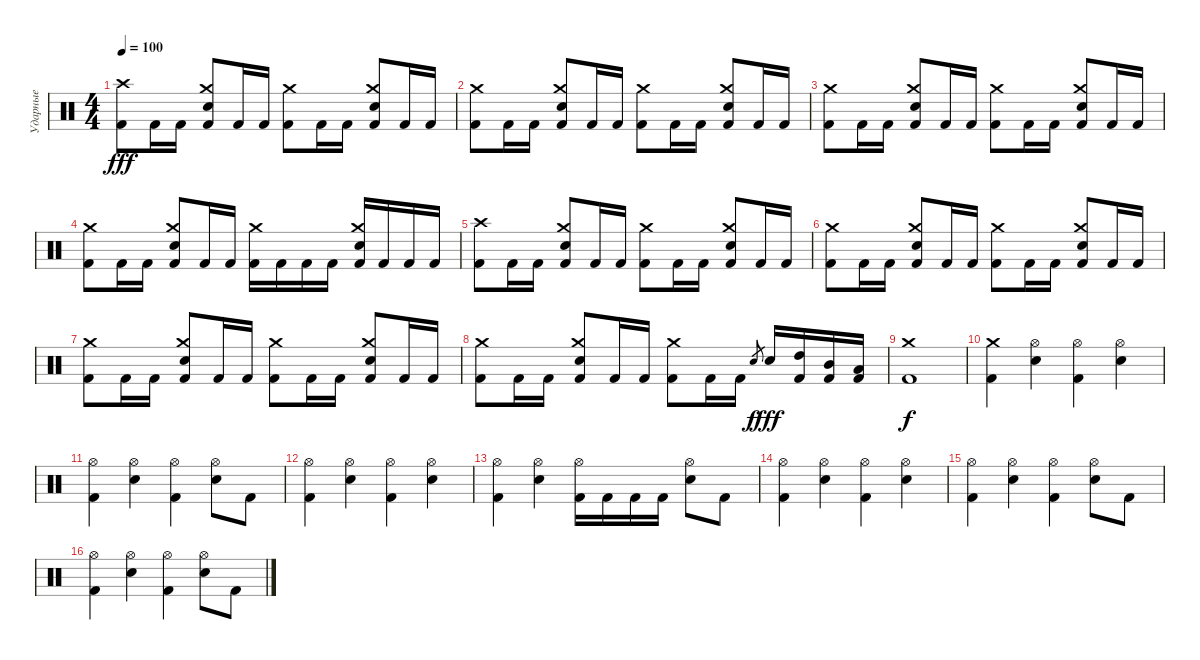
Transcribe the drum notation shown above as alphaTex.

\track ("Ударные" "Ударные") {instrument percussion}
\staff {score}
\articulation defaults
\ts (4 4)
\tempo 100
\clef neutral
\ks c
("Crash high (hit)" "Kick (hit) 2").8{dy fff} "Kick (hit) 2".16 "Kick (hit) 2".16 ("Crash medium (hit)" "Electric Snare (hit)" "Kick (hit) 2").8 "Kick (hit) 2".16 "Kick (hit) 2".16 ("Crash medium (hit)" "Kick (hit) 2").8 "Kick (hit) 2".16 "Kick (hit) 2".16 ("Crash medium (hit)" "Electric Snare (hit)" "Kick (hit) 2").8 "Kick (hit) 2".16 "Kick (hit) 2".16 |
("Crash medium (hit)" "Kick (hit) 2").8 "Kick (hit) 2".16 "Kick (hit) 2".16 ("Crash medium (hit)" "Electric Snare (hit)" "Kick (hit) 2").8 "Kick (hit) 2".16 "Kick (hit) 2".16 ("Crash medium (hit)" "Kick (hit) 2").8 "Kick (hit) 2".16 "Kick (hit) 2".16 ("Crash medium (hit)" "Electric Snare (hit)" "Kick (hit) 2").8 "Kick (hit) 2".16 "Kick (hit) 2".16 |
("Crash medium (hit)" "Kick (hit) 2").8 "Kick (hit) 2".16 "Kick (hit) 2".16 ("Crash medium (hit)" "Electric Snare (hit)" "Kick (hit) 2").8 "Kick (hit) 2".16 "Kick (hit) 2".16 ("Crash medium (hit)" "Kick (hit) 2").8 "Kick (hit) 2".16 "Kick (hit) 2".16 ("Crash medium (hit)" "Electric Snare (hit)" "Kick (hit) 2").8 "Kick (hit) 2".16 "Kick (hit) 2".16 |
("Crash medium (hit)" "Kick (hit) 2").8 "Kick (hit) 2".16 "Kick (hit) 2".16 ("Crash medium (hit)" "Electric Snare (hit)" "Kick (hit) 2").8 "Kick (hit) 2".16 "Kick (hit) 2".16 ("Crash medium (hit)" "Kick (hit) 2").16 "Kick (hit) 2".16 "Kick (hit) 2".16 "Kick (hit) 2".16 ("Crash medium (hit)" "Electric Snare (hit)" "Kick (hit) 2").16 "Kick (hit) 2".16 "Kick (hit) 2".16 "Kick (hit) 2".16 |
("Crash high (hit)" "Kick (hit) 2").8 "Kick (hit) 2".16 "Kick (hit) 2".16 ("Crash medium (hit)" "Electric Snare (hit)" "Kick (hit) 2").8 "Kick (hit) 2".16 "Kick (hit) 2".16 ("Crash medium (hit)" "Kick (hit) 2").8 "Kick (hit) 2".16 "Kick (hit) 2".16 ("Crash medium (hit)" "Electric Snare (hit)" "Kick (hit) 2").8 "Kick (hit) 2".16 "Kick (hit) 2".16 |
("Crash medium (hit)" "Kick (hit) 2").8 "Kick (hit) 2".16 "Kick (hit) 2".16 ("Crash medium (hit)" "Electric Snare (hit)" "Kick (hit) 2").8 "Kick (hit) 2".16 "Kick (hit) 2".16 ("Crash medium (hit)" "Kick (hit) 2").8 "Kick (hit) 2".16 "Kick (hit) 2".16 ("Crash medium (hit)" "Electric Snare (hit)" "Kick (hit) 2").8 "Kick (hit) 2".16 "Kick (hit) 2".16 |
("Crash medium (hit)" "Kick (hit) 2").8 "Kick (hit) 2".16 "Kick (hit) 2".16 ("Crash medium (hit)" "Electric Snare (hit)" "Kick (hit) 2").8 "Kick (hit) 2".16 "Kick (hit) 2".16 ("Crash medium (hit)" "Kick (hit) 2").8 "Kick (hit) 2".16 "Kick (hit) 2".16 ("Crash medium (hit)" "Electric Snare (hit)" "Kick (hit) 2").8 "Kick (hit) 2".16 "Kick (hit) 2".16 |
("Crash medium (hit)" "Kick (hit) 2").8 "Kick (hit) 2".16 "Kick (hit) 2".16 ("Crash medium (hit)" "Electric Snare (hit)" "Kick (hit) 2").8 "Kick (hit) 2".16 "Kick (hit) 2".16 ("Crash medium (hit)" "Kick (hit) 2").8 "Kick (hit) 2".16 "Kick (hit) 2".16 "Electric Snare (hit)".8{gr dy f} "Electric Snare (hit)".16{dy fff} ("High Tom (hit)" "Kick (hit) 2").16 ("Mid Tom (hit)" "Kick (hit) 2").16 ("Low Tom (hit)" "Kick (hit) 2").16 |
("Crash medium (hit)" "Kick (hit) 2").1{dy f} |
("Crash medium (hit)" "Kick (hit) 2").4 ("Hi-Hat (open)" "Electric Snare (hit)").4 ("Hi-Hat (open)" "Kick (hit) 2").4 ("Hi-Hat (open)" "Electric Snare (hit)").4 |
("Hi-Hat (open)" "Kick (hit) 2").4 ("Hi-Hat (open)" "Electric Snare (hit)").4 ("Hi-Hat (open)" "Kick (hit) 2").4 ("Hi-Hat (open)" "Electric Snare (hit)").8 "Kick (hit) 2".8 |
("Hi-Hat (open)" "Kick (hit) 2").4 ("Hi-Hat (open)" "Electric Snare (hit)").4 ("Hi-Hat (open)" "Kick (hit) 2").4 ("Hi-Hat (open)" "Electric Snare (hit)").4 |
("Hi-Hat (open)" "Kick (hit) 2").4 ("Hi-Hat (open)" "Electric Snare (hit)").4 ("Hi-Hat (open)" "Kick (hit) 2").16 "Kick (hit) 2".16 "Kick (hit) 2".16 "Kick (hit) 2".16 ("Hi-Hat (open)" "Electric Snare (hit)").8 "Kick (hit) 2".8 |
("Hi-Hat (open)" "Kick (hit) 2").4 ("Hi-Hat (open)" "Electric Snare (hit)").4 ("Hi-Hat (open)" "Kick (hit) 2").4 ("Hi-Hat (open)" "Electric Snare (hit)").4 |
("Hi-Hat (open)" "Kick (hit) 2").4 ("Hi-Hat (open)" "Electric Snare (hit)").4 ("Hi-Hat (open)" "Kick (hit) 2").4 ("Hi-Hat (open)" "Electric Snare (hit)").8 "Kick (hit) 2".8 |
("Hi-Hat (open)" "Kick (hit) 2").4 ("Hi-Hat (open)" "Electric Snare (hit)").4 ("Hi-Hat (open)" "Kick (hit) 2").4 ("Hi-Hat (open)" "Electric Snare (hit)").8 "Kick (hit) 2".8
